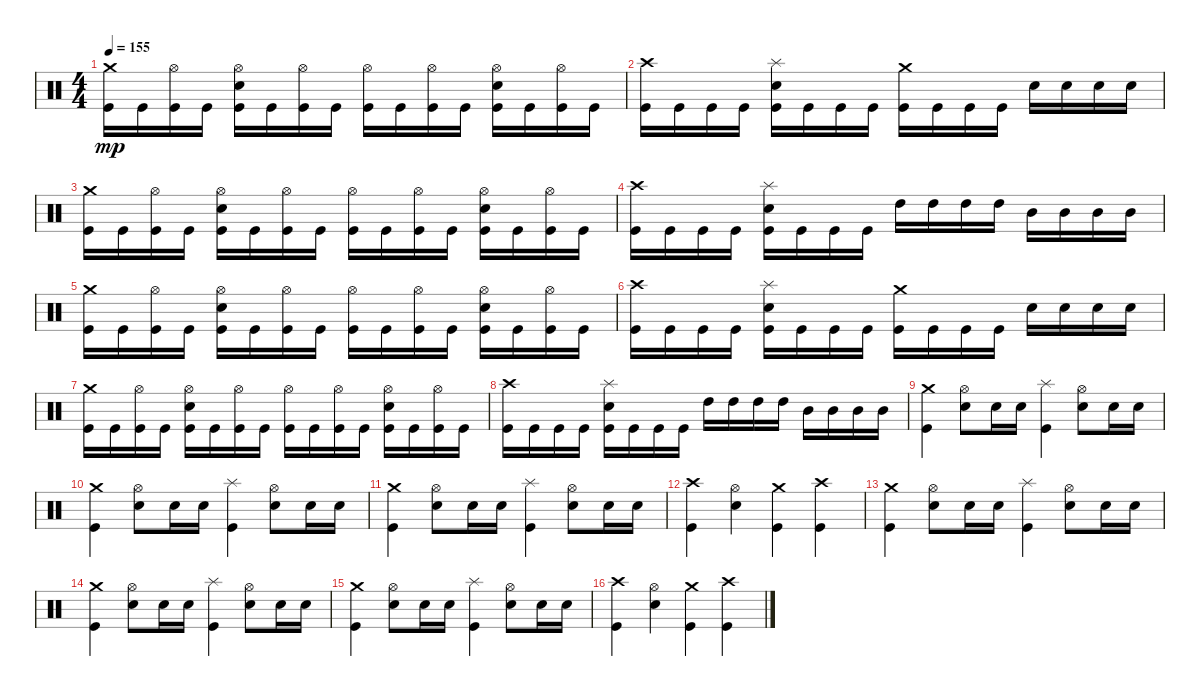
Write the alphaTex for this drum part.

\track "" {instrument percussion}
\staff {score}
\articulation defaults
\ts (4 4)
\tempo 155
\clef neutral
\ks c
("Crash medium (hit)" "Kick (hit)").16{dy mp} "Kick (hit)".16 ("Kick (hit)" "Hi-Hat (open)").16 "Kick (hit)".16 ("Kick (hit)" "Snare (hit) 2" "Hi-Hat (open)").16 "Kick (hit)".16 ("Kick (hit)" "Hi-Hat (open)").16 "Kick (hit)".16 ("Kick (hit)" "Hi-Hat (open)").16 "Kick (hit)".16 ("Kick (hit)" "Hi-Hat (open)").16 "Kick (hit)".16 ("Kick (hit)" "Snare (hit) 2" "Hi-Hat (open)").16 "Kick (hit)".16 ("Kick (hit)" "Hi-Hat (open)").16 "Kick (hit)".16 |
("Kick (hit)" "Crash high (hit)").16 "Kick (hit)".16 "Kick (hit)".16 "Kick (hit)".16 ("Kick (hit)" "Snare (hit) 2" "Splash (hit)").16 "Kick (hit)".16 "Kick (hit)".16 "Kick (hit)".16 ("Kick (hit)" "Crash medium (hit)").16 "Kick (hit)".16 "Kick (hit)".16 "Kick (hit)".16 "Snare (hit) 2".16 "Snare (hit) 2".16 "Snare (hit) 2".16 "Snare (hit) 2".16 |
("Crash medium (hit)" "Kick (hit)").16 "Kick (hit)".16 ("Kick (hit)" "Hi-Hat (open)").16 "Kick (hit)".16 ("Kick (hit)" "Snare (hit) 2" "Hi-Hat (open)").16 "Kick (hit)".16 ("Kick (hit)" "Hi-Hat (open)").16 "Kick (hit)".16 ("Kick (hit)" "Hi-Hat (open)").16 "Kick (hit)".16 ("Kick (hit)" "Hi-Hat (open)").16 "Kick (hit)".16 ("Kick (hit)" "Snare (hit) 2" "Hi-Hat (open)").16 "Kick (hit)".16 ("Kick (hit)" "Hi-Hat (open)").16 "Kick (hit)".16 |
("Kick (hit)" "Crash high (hit)").16 "Kick (hit)".16 "Kick (hit)".16 "Kick (hit)".16 ("Kick (hit)" "Snare (hit) 2" "Splash (hit)").16 "Kick (hit)".16 "Kick (hit)".16 "Kick (hit)".16 "High Tom (hit)".16 "High Tom (hit)".16 "High Tom (hit)".16 "High Tom (hit)".16 "Mid Tom (hit)".16 "Mid Tom (hit)".16 "Mid Tom (hit)".16 "Mid Tom (hit)".16 |
("Crash medium (hit)" "Kick (hit)").16 "Kick (hit)".16 ("Kick (hit)" "Hi-Hat (open)").16 "Kick (hit)".16 ("Kick (hit)" "Snare (hit) 2" "Hi-Hat (open)").16 "Kick (hit)".16 ("Kick (hit)" "Hi-Hat (open)").16 "Kick (hit)".16 ("Kick (hit)" "Hi-Hat (open)").16 "Kick (hit)".16 ("Kick (hit)" "Hi-Hat (open)").16 "Kick (hit)".16 ("Kick (hit)" "Snare (hit) 2" "Hi-Hat (open)").16 "Kick (hit)".16 ("Kick (hit)" "Hi-Hat (open)").16 "Kick (hit)".16 |
("Kick (hit)" "Crash high (hit)").16 "Kick (hit)".16 "Kick (hit)".16 "Kick (hit)".16 ("Kick (hit)" "Snare (hit) 2" "Splash (hit)").16 "Kick (hit)".16 "Kick (hit)".16 "Kick (hit)".16 ("Kick (hit)" "Crash medium (hit)").16 "Kick (hit)".16 "Kick (hit)".16 "Kick (hit)".16 "Snare (hit) 2".16 "Snare (hit) 2".16 "Snare (hit) 2".16 "Snare (hit) 2".16 |
("Crash medium (hit)" "Kick (hit)").16 "Kick (hit)".16 ("Kick (hit)" "Hi-Hat (open)").16 "Kick (hit)".16 ("Kick (hit)" "Snare (hit) 2" "Hi-Hat (open)").16 "Kick (hit)".16 ("Kick (hit)" "Hi-Hat (open)").16 "Kick (hit)".16 ("Kick (hit)" "Hi-Hat (open)").16 "Kick (hit)".16 ("Kick (hit)" "Hi-Hat (open)").16 "Kick (hit)".16 ("Kick (hit)" "Snare (hit) 2" "Hi-Hat (open)").16 "Kick (hit)".16 ("Kick (hit)" "Hi-Hat (open)").16 "Kick (hit)".16 |
("Kick (hit)" "Crash high (hit)").16 "Kick (hit)".16 "Kick (hit)".16 "Kick (hit)".16 ("Kick (hit)" "Snare (hit) 2" "Splash (hit)").16 "Kick (hit)".16 "Kick (hit)".16 "Kick (hit)".16 "High Tom (hit)".16 "High Tom (hit)".16 "High Tom (hit)".16 "High Tom (hit)".16 "Mid Tom (hit)".16 "Mid Tom (hit)".16 "Mid Tom (hit)".16 "Mid Tom (hit)".16 |
("Crash medium (hit)" "Kick (hit)").4 ("Snare (hit) 2" "Hi-Hat (open)").8 "Snare (hit) 2".16 "Snare (hit) 2".16 ("Splash (hit)" "Kick (hit)").4 ("Snare (hit) 2" "Hi-Hat (open)").8 "Snare (hit) 2".16 "Snare (hit) 2".16 |
("Crash medium (hit)" "Kick (hit)").4 ("Snare (hit) 2" "Hi-Hat (open)").8 "Snare (hit) 2".16 "Snare (hit) 2".16 ("Splash (hit)" "Kick (hit)").4 ("Snare (hit) 2" "Hi-Hat (open)").8 "Snare (hit) 2".16 "Snare (hit) 2".16 |
("Crash medium (hit)" "Kick (hit)").4 ("Snare (hit) 2" "Hi-Hat (open)").8 "Snare (hit) 2".16 "Snare (hit) 2".16 ("Splash (hit)" "Kick (hit)").4 ("Snare (hit) 2" "Hi-Hat (open)").8 "Snare (hit) 2".16 "Snare (hit) 2".16 |
("Crash high (hit)" "Kick (hit)").4 ("Snare (hit) 2" "Hi-Hat (open)").4 ("Kick (hit)" "Crash medium (hit)").4 ("Kick (hit)" "Crash high (hit)").4 |
("Crash medium (hit)" "Kick (hit)").4 ("Snare (hit) 2" "Hi-Hat (open)").8 "Snare (hit) 2".16 "Snare (hit) 2".16 ("Splash (hit)" "Kick (hit)").4 ("Snare (hit) 2" "Hi-Hat (open)").8 "Snare (hit) 2".16 "Snare (hit) 2".16 |
("Crash medium (hit)" "Kick (hit)").4 ("Snare (hit) 2" "Hi-Hat (open)").8 "Snare (hit) 2".16 "Snare (hit) 2".16 ("Splash (hit)" "Kick (hit)").4 ("Snare (hit) 2" "Hi-Hat (open)").8 "Snare (hit) 2".16 "Snare (hit) 2".16 |
("Crash medium (hit)" "Kick (hit)").4 ("Snare (hit) 2" "Hi-Hat (open)").8 "Snare (hit) 2".16 "Snare (hit) 2".16 ("Splash (hit)" "Kick (hit)").4 ("Snare (hit) 2" "Hi-Hat (open)").8 "Snare (hit) 2".16 "Snare (hit) 2".16 |
("Crash high (hit)" "Kick (hit)").4 ("Snare (hit) 2" "Hi-Hat (open)").4 ("Kick (hit)" "Crash medium (hit)").4 ("Kick (hit)" "Crash high (hit)").4
